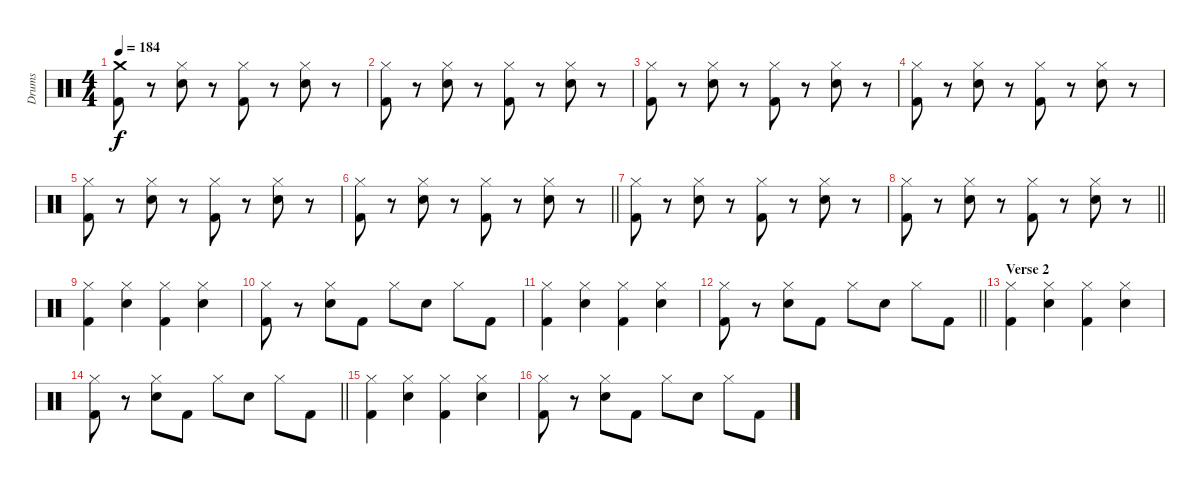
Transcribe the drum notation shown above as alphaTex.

\track ("Drums" "Drums") {instrument percussion}
\staff {score}
\articulation defaults
\ts (4 4)
\tempo 184
\clef neutral
\ks c
("Crash medium (hit)" "Kick (hit) 2").8{dy f} r.8 ("Hi-Hat (closed)" "Snare (hit) 2").8 r.8 ("Hi-Hat (closed)" "Kick (hit) 2").8 r.8 ("Hi-Hat (closed)" "Snare (hit) 2").8 r.8 |
("Hi-Hat (closed)" "Kick (hit) 2").8 r.8 ("Hi-Hat (closed)" "Snare (hit) 2").8 r.8 ("Hi-Hat (closed)" "Kick (hit) 2").8 r.8 ("Hi-Hat (closed)" "Snare (hit) 2").8 r.8 |
("Hi-Hat (closed)" "Kick (hit) 2").8 r.8 ("Hi-Hat (closed)" "Snare (hit) 2").8 r.8 ("Hi-Hat (closed)" "Kick (hit) 2").8 r.8 ("Hi-Hat (closed)" "Snare (hit) 2").8 r.8 |
("Hi-Hat (closed)" "Kick (hit) 2").8 r.8 ("Hi-Hat (closed)" "Snare (hit) 2").8 r.8 ("Hi-Hat (closed)" "Kick (hit) 2").8 r.8 ("Hi-Hat (closed)" "Snare (hit) 2").8 r.8 |
("Hi-Hat (closed)" "Kick (hit) 2").8 r.8 ("Hi-Hat (closed)" "Snare (hit) 2").8 r.8 ("Hi-Hat (closed)" "Kick (hit) 2").8 r.8 ("Hi-Hat (closed)" "Snare (hit) 2").8 r.8 |
\barLineRight lightlight
("Hi-Hat (closed)" "Kick (hit) 2").8 r.8 ("Hi-Hat (closed)" "Snare (hit) 2").8 r.8 ("Hi-Hat (closed)" "Kick (hit) 2").8 r.8 ("Hi-Hat (closed)" "Snare (hit) 2").8 r.8 |
("Hi-Hat (closed)" "Kick (hit) 2").8 r.8 ("Hi-Hat (closed)" "Snare (hit) 2").8 r.8 ("Hi-Hat (closed)" "Kick (hit) 2").8 r.8 ("Hi-Hat (closed)" "Snare (hit) 2").8 r.8 |
\barLineRight lightlight
("Hi-Hat (closed)" "Kick (hit) 2").8 r.8 ("Hi-Hat (closed)" "Snare (hit) 2").8 r.8 ("Hi-Hat (closed)" "Kick (hit) 2").8 r.8 ("Hi-Hat (closed)" "Snare (hit) 2").8 r.8 |
("Hi-Hat (closed)" "Kick (hit) 2").4 ("Hi-Hat (closed)" "Snare (hit) 2").4 ("Hi-Hat (closed)" "Kick (hit) 2").4 ("Hi-Hat (closed)" "Snare (hit) 2").4 |
("Hi-Hat (closed)" "Kick (hit) 2").8 r.8 ("Hi-Hat (closed)" "Snare (hit) 2").8 "Kick (hit) 2".8 "Hi-Hat (closed)".8 "Snare (hit) 2".8 "Hi-Hat (closed)".8 "Kick (hit) 2".8 |
("Hi-Hat (closed)" "Kick (hit) 2").4 ("Hi-Hat (closed)" "Snare (hit) 2").4 ("Hi-Hat (closed)" "Kick (hit) 2").4 ("Hi-Hat (closed)" "Snare (hit) 2").4 |
\barLineRight lightlight
("Hi-Hat (closed)" "Kick (hit) 2").8 r.8 ("Hi-Hat (closed)" "Snare (hit) 2").8 "Kick (hit) 2".8 "Hi-Hat (closed)".8 "Snare (hit) 2".8 "Hi-Hat (closed)".8 "Kick (hit) 2".8 |
\section ("" "Verse 2")
("Hi-Hat (closed)" "Kick (hit) 2").4 ("Hi-Hat (closed)" "Snare (hit) 2").4 ("Hi-Hat (closed)" "Kick (hit) 2").4 ("Hi-Hat (closed)" "Snare (hit) 2").4 |
\barLineRight lightlight
("Hi-Hat (closed)" "Kick (hit) 2").8 r.8 ("Hi-Hat (closed)" "Snare (hit) 2").8 "Kick (hit) 2".8 "Hi-Hat (closed)".8 "Snare (hit) 2".8 "Hi-Hat (closed)".8 "Kick (hit) 2".8 |
("Hi-Hat (closed)" "Kick (hit) 2").4 ("Hi-Hat (closed)" "Snare (hit) 2").4 ("Hi-Hat (closed)" "Kick (hit) 2").4 ("Hi-Hat (closed)" "Snare (hit) 2").4 |
("Hi-Hat (closed)" "Kick (hit) 2").8 r.8 ("Hi-Hat (closed)" "Snare (hit) 2").8 "Kick (hit) 2".8 "Hi-Hat (closed)".8 "Snare (hit) 2".8 "Hi-Hat (closed)".8 "Kick (hit) 2".8
